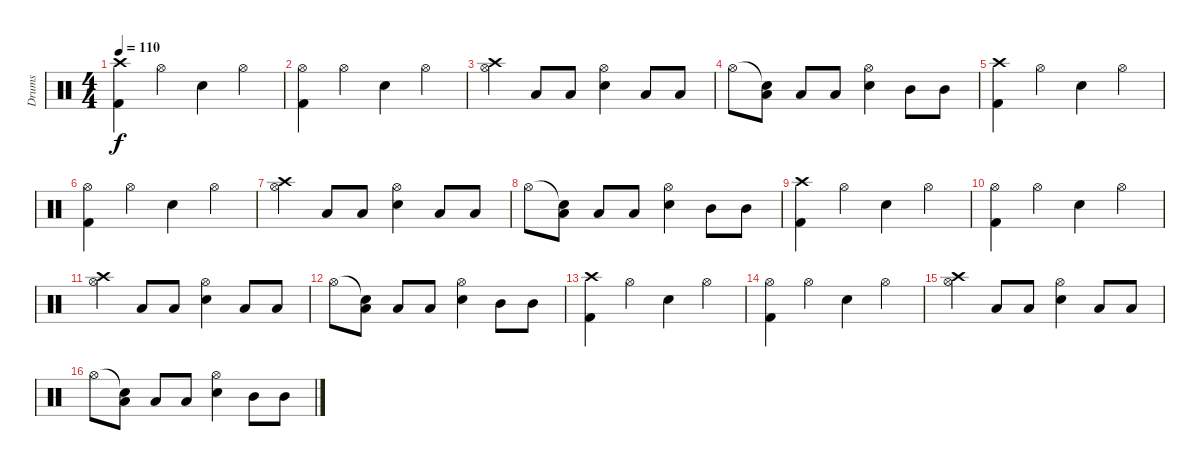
\track ("Drums" "Drums") {instrument percussion}
\staff {score}
\articulation defaults
\ts (4 4)
\tempo 110
\clef neutral
\ks c
("Crash high (hit)" "Kick (hit) 2").4{dy f} "Hi-Hat (open)".4 "Snare (hit) 2".4 "Hi-Hat (open)".4 |
("Hi-Hat (open)" "Kick (hit) 2").4 "Hi-Hat (open)".4 "Snare (hit) 2".4 "Hi-Hat (open)".4 |
("Crash high (hit)" "Hi-Hat (open)").4 "Low Tom (hit)".8 "Low Tom (hit)".8 ("Hi-Hat (open)" "Snare (hit) 2").4 "Low Tom (hit)".8 "Low Tom (hit)".8 |
"Hi-Hat (open)".8 ("Snare (hit)"{t} "Low Tom (hit)").8 "Low Tom (hit)".8 "Low Tom (hit)".8 ("Hi-Hat (open)" "Snare (hit) 2").4 "Mid Tom (hit)".8 "Mid Tom (hit)".8 |
("Crash high (hit)" "Kick (hit) 2").4 "Hi-Hat (open)".4 "Snare (hit) 2".4 "Hi-Hat (open)".4 |
("Hi-Hat (open)" "Kick (hit) 2").4 "Hi-Hat (open)".4 "Snare (hit) 2".4 "Hi-Hat (open)".4 |
("Crash high (hit)" "Hi-Hat (open)").4 "Low Tom (hit)".8 "Low Tom (hit)".8 ("Hi-Hat (open)" "Snare (hit) 2").4 "Low Tom (hit)".8 "Low Tom (hit)".8 |
"Hi-Hat (open)".8 ("Snare (hit)"{t} "Low Tom (hit)").8 "Low Tom (hit)".8 "Low Tom (hit)".8 ("Hi-Hat (open)" "Snare (hit) 2").4 "Mid Tom (hit)".8 "Mid Tom (hit)".8 |
("Crash high (hit)" "Kick (hit) 2").4 "Hi-Hat (open)".4 "Snare (hit) 2".4 "Hi-Hat (open)".4 |
("Hi-Hat (open)" "Kick (hit) 2").4 "Hi-Hat (open)".4 "Snare (hit) 2".4 "Hi-Hat (open)".4 |
("Crash high (hit)" "Hi-Hat (open)").4 "Low Tom (hit)".8 "Low Tom (hit)".8 ("Hi-Hat (open)" "Snare (hit) 2").4 "Low Tom (hit)".8 "Low Tom (hit)".8 |
"Hi-Hat (open)".8 ("Snare (hit)"{t} "Low Tom (hit)").8 "Low Tom (hit)".8 "Low Tom (hit)".8 ("Hi-Hat (open)" "Snare (hit) 2").4 "Mid Tom (hit)".8 "Mid Tom (hit)".8 |
("Crash high (hit)" "Kick (hit) 2").4 "Hi-Hat (open)".4 "Snare (hit) 2".4 "Hi-Hat (open)".4 |
("Hi-Hat (open)" "Kick (hit) 2").4 "Hi-Hat (open)".4 "Snare (hit) 2".4 "Hi-Hat (open)".4 |
("Crash high (hit)" "Hi-Hat (open)").4 "Low Tom (hit)".8 "Low Tom (hit)".8 ("Hi-Hat (open)" "Snare (hit) 2").4 "Low Tom (hit)".8 "Low Tom (hit)".8 |
"Hi-Hat (open)".8 ("Snare (hit)"{t} "Low Tom (hit)").8 "Low Tom (hit)".8 "Low Tom (hit)".8 ("Hi-Hat (open)" "Snare (hit) 2").4 "Mid Tom (hit)".8 "Mid Tom (hit)".8
